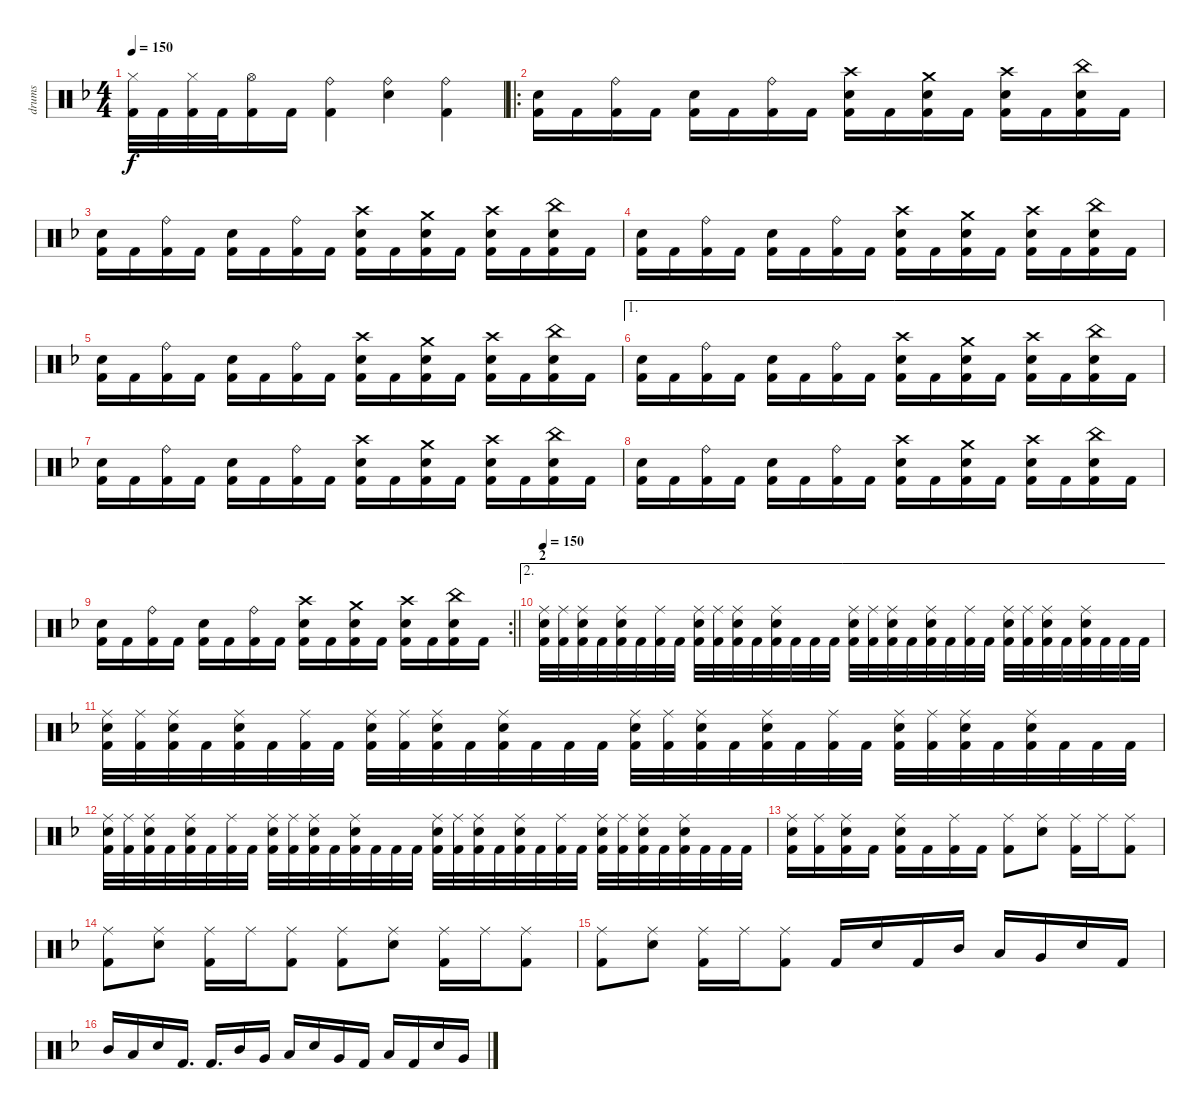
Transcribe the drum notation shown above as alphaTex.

\track ("drums" "drums") {instrument percussion}
\staff {score}
\articulation defaults
\ts (4 4)
\tempo 150
\clef neutral
\ks dminor
("Hi-Hat (closed)" "Kick (hit) 2").32{dy f} "Kick (hit) 2".32 ("Hi-Hat (closed)" "Kick (hit) 2").32 "Kick (hit) 2".32 ("Hi-Hat (open)" "Kick (hit) 2").16 "Kick (hit) 2".16 ("Ride (bell)" "Kick (hit) 2").4 ("Ride (bell)" "Electric Snare (hit)").4 ("Ride (bell)" "Kick (hit) 2").4 |
\ro
("Electric Snare (hit)" "Kick (hit) 2").16 "Kick (hit) 2".16 ("Ride (bell)" "Kick (hit) 2").16 "Kick (hit) 2".16 ("Electric Snare (hit)" "Kick (hit) 2").16 "Kick (hit) 2".16 ("Ride (bell)" "Kick (hit) 2").16 "Kick (hit) 2".16 ("Crash high (hit)" "Electric Snare (hit)" "Kick (hit) 2").16 "Kick (hit) 2".16 ("Crash medium (hit)" "Electric Snare (hit)" "Kick (hit) 2").16 "Kick (hit) 2".16 ("Crash high (hit)" "Electric Snare (hit)" "Kick (hit) 2").16 "Kick (hit) 2".16 ("China (hit)" "Electric Snare (hit)" "Kick (hit) 2").16 "Kick (hit) 2".16 |
("Electric Snare (hit)" "Kick (hit) 2").16 "Kick (hit) 2".16 ("Ride (bell)" "Kick (hit) 2").16 "Kick (hit) 2".16 ("Electric Snare (hit)" "Kick (hit) 2").16 "Kick (hit) 2".16 ("Ride (bell)" "Kick (hit) 2").16 "Kick (hit) 2".16 ("Crash high (hit)" "Electric Snare (hit)" "Kick (hit) 2").16 "Kick (hit) 2".16 ("Crash medium (hit)" "Electric Snare (hit)" "Kick (hit) 2").16 "Kick (hit) 2".16 ("Crash high (hit)" "Electric Snare (hit)" "Kick (hit) 2").16 "Kick (hit) 2".16 ("China (hit)" "Electric Snare (hit)" "Kick (hit) 2").16 "Kick (hit) 2".16 |
("Electric Snare (hit)" "Kick (hit) 2").16 "Kick (hit) 2".16 ("Ride (bell)" "Kick (hit) 2").16 "Kick (hit) 2".16 ("Electric Snare (hit)" "Kick (hit) 2").16 "Kick (hit) 2".16 ("Ride (bell)" "Kick (hit) 2").16 "Kick (hit) 2".16 ("Crash high (hit)" "Electric Snare (hit)" "Kick (hit) 2").16 "Kick (hit) 2".16 ("Crash medium (hit)" "Electric Snare (hit)" "Kick (hit) 2").16 "Kick (hit) 2".16 ("Crash high (hit)" "Electric Snare (hit)" "Kick (hit) 2").16 "Kick (hit) 2".16 ("China (hit)" "Electric Snare (hit)" "Kick (hit) 2").16 "Kick (hit) 2".16 |
("Electric Snare (hit)" "Kick (hit) 2").16 "Kick (hit) 2".16 ("Ride (bell)" "Kick (hit) 2").16 "Kick (hit) 2".16 ("Electric Snare (hit)" "Kick (hit) 2").16 "Kick (hit) 2".16 ("Ride (bell)" "Kick (hit) 2").16 "Kick (hit) 2".16 ("Crash high (hit)" "Electric Snare (hit)" "Kick (hit) 2").16 "Kick (hit) 2".16 ("Crash medium (hit)" "Electric Snare (hit)" "Kick (hit) 2").16 "Kick (hit) 2".16 ("Crash high (hit)" "Electric Snare (hit)" "Kick (hit) 2").16 "Kick (hit) 2".16 ("China (hit)" "Electric Snare (hit)" "Kick (hit) 2").16 "Kick (hit) 2".16 |
\ae 1
("Electric Snare (hit)" "Kick (hit) 2").16 "Kick (hit) 2".16 ("Ride (bell)" "Kick (hit) 2").16 "Kick (hit) 2".16 ("Electric Snare (hit)" "Kick (hit) 2").16 "Kick (hit) 2".16 ("Ride (bell)" "Kick (hit) 2").16 "Kick (hit) 2".16 ("Crash high (hit)" "Electric Snare (hit)" "Kick (hit) 2").16 "Kick (hit) 2".16 ("Crash medium (hit)" "Electric Snare (hit)" "Kick (hit) 2").16 "Kick (hit) 2".16 ("Crash high (hit)" "Electric Snare (hit)" "Kick (hit) 2").16 "Kick (hit) 2".16 ("China (hit)" "Electric Snare (hit)" "Kick (hit) 2").16 "Kick (hit) 2".16 |
("Electric Snare (hit)" "Kick (hit) 2").16 "Kick (hit) 2".16 ("Ride (bell)" "Kick (hit) 2").16 "Kick (hit) 2".16 ("Electric Snare (hit)" "Kick (hit) 2").16 "Kick (hit) 2".16 ("Ride (bell)" "Kick (hit) 2").16 "Kick (hit) 2".16 ("Crash high (hit)" "Electric Snare (hit)" "Kick (hit) 2").16 "Kick (hit) 2".16 ("Crash medium (hit)" "Electric Snare (hit)" "Kick (hit) 2").16 "Kick (hit) 2".16 ("Crash high (hit)" "Electric Snare (hit)" "Kick (hit) 2").16 "Kick (hit) 2".16 ("China (hit)" "Electric Snare (hit)" "Kick (hit) 2").16 "Kick (hit) 2".16 |
("Electric Snare (hit)" "Kick (hit) 2").16 "Kick (hit) 2".16 ("Ride (bell)" "Kick (hit) 2").16 "Kick (hit) 2".16 ("Electric Snare (hit)" "Kick (hit) 2").16 "Kick (hit) 2".16 ("Ride (bell)" "Kick (hit) 2").16 "Kick (hit) 2".16 ("Crash high (hit)" "Electric Snare (hit)" "Kick (hit) 2").16 "Kick (hit) 2".16 ("Crash medium (hit)" "Electric Snare (hit)" "Kick (hit) 2").16 "Kick (hit) 2".16 ("Crash high (hit)" "Electric Snare (hit)" "Kick (hit) 2").16 "Kick (hit) 2".16 ("China (hit)" "Electric Snare (hit)" "Kick (hit) 2").16 "Kick (hit) 2".16 |
\rc 2
\barLineRight lightlight
("Electric Snare (hit)" "Kick (hit) 2").16 "Kick (hit) 2".16 ("Ride (bell)" "Kick (hit) 2").16 "Kick (hit) 2".16 ("Electric Snare (hit)" "Kick (hit) 2").16 "Kick (hit) 2".16 ("Ride (bell)" "Kick (hit) 2").16 "Kick (hit) 2".16 ("Crash high (hit)" "Electric Snare (hit)" "Kick (hit) 2").16 "Kick (hit) 2".16 ("Crash medium (hit)" "Electric Snare (hit)" "Kick (hit) 2").16 "Kick (hit) 2".16 ("Crash high (hit)" "Electric Snare (hit)" "Kick (hit) 2").16 "Kick (hit) 2".16 ("China (hit)" "Electric Snare (hit)" "Kick (hit) 2").16 "Kick (hit) 2".16 |
\ae 2
\section ("" "2")
\tempo 150
("Ride (middle)" "Electric Snare (hit)" "Kick (hit) 2").32 ("Ride (middle)" "Kick (hit) 2").32 ("Ride (middle)" "Electric Snare (hit)" "Kick (hit) 2").32 "Kick (hit) 2".32 ("Ride (middle)" "Electric Snare (hit)" "Kick (hit) 2").32 "Kick (hit) 2".32 ("Ride (middle)" "Kick (hit) 2").32 "Kick (hit) 2".32 ("Ride (middle)" "Electric Snare (hit)" "Kick (hit) 2").32 ("Ride (middle)" "Kick (hit) 2").32 ("Ride (middle)" "Electric Snare (hit)" "Kick (hit) 2").32 "Kick (hit) 2".32 ("Ride (middle)" "Electric Snare (hit)" "Kick (hit) 2").32 "Kick (hit) 2".32 "Kick (hit) 2".32 "Kick (hit) 2".32 ("Ride (middle)" "Electric Snare (hit)" "Kick (hit) 2").32 ("Ride (middle)" "Kick (hit) 2").32 ("Ride (middle)" "Electric Snare (hit)" "Kick (hit) 2").32 "Kick (hit) 2".32 ("Ride (middle)" "Electric Snare (hit)" "Kick (hit) 2").32 "Kick (hit) 2".32 ("Ride (middle)" "Kick (hit) 2").32 "Kick (hit) 2".32 ("Ride (middle)" "Electric Snare (hit)" "Kick (hit) 2").32 ("Ride (middle)" "Kick (hit) 2").32 ("Ride (middle)" "Electric Snare (hit)" "Kick (hit) 2").32 "Kick (hit) 2".32 ("Ride (middle)" "Electric Snare (hit)" "Kick (hit) 2").32 "Kick (hit) 2".32 "Kick (hit) 2".32 "Kick (hit) 2".32 |
("Ride (middle)" "Electric Snare (hit)" "Kick (hit) 2").32 ("Ride (middle)" "Kick (hit) 2").32 ("Ride (middle)" "Electric Snare (hit)" "Kick (hit) 2").32 "Kick (hit) 2".32 ("Ride (middle)" "Electric Snare (hit)" "Kick (hit) 2").32 "Kick (hit) 2".32 ("Ride (middle)" "Kick (hit) 2").32 "Kick (hit) 2".32 ("Ride (middle)" "Electric Snare (hit)" "Kick (hit) 2").32 ("Ride (middle)" "Kick (hit) 2").32 ("Ride (middle)" "Electric Snare (hit)" "Kick (hit) 2").32 "Kick (hit) 2".32 ("Ride (middle)" "Electric Snare (hit)" "Kick (hit) 2").32 "Kick (hit) 2".32 "Kick (hit) 2".32 "Kick (hit) 2".32 ("Ride (middle)" "Electric Snare (hit)" "Kick (hit) 2").32 ("Ride (middle)" "Kick (hit) 2").32 ("Ride (middle)" "Electric Snare (hit)" "Kick (hit) 2").32 "Kick (hit) 2".32 ("Ride (middle)" "Electric Snare (hit)" "Kick (hit) 2").32 "Kick (hit) 2".32 ("Ride (middle)" "Kick (hit) 2").32 "Kick (hit) 2".32 ("Ride (middle)" "Electric Snare (hit)" "Kick (hit) 2").32 ("Ride (middle)" "Kick (hit) 2").32 ("Ride (middle)" "Electric Snare (hit)" "Kick (hit) 2").32 "Kick (hit) 2".32 ("Ride (middle)" "Electric Snare (hit)" "Kick (hit) 2").32 "Kick (hit) 2".32 "Kick (hit) 2".32 "Kick (hit) 2".32 |
("Ride (middle)" "Electric Snare (hit)" "Kick (hit) 2").32 ("Ride (middle)" "Kick (hit) 2").32 ("Ride (middle)" "Electric Snare (hit)" "Kick (hit) 2").32 "Kick (hit) 2".32 ("Ride (middle)" "Electric Snare (hit)" "Kick (hit) 2").32 "Kick (hit) 2".32 ("Ride (middle)" "Kick (hit) 2").32 "Kick (hit) 2".32 ("Ride (middle)" "Electric Snare (hit)" "Kick (hit) 2").32 ("Ride (middle)" "Kick (hit) 2").32 ("Ride (middle)" "Electric Snare (hit)" "Kick (hit) 2").32 "Kick (hit) 2".32 ("Ride (middle)" "Electric Snare (hit)" "Kick (hit) 2").32 "Kick (hit) 2".32 "Kick (hit) 2".32 "Kick (hit) 2".32 ("Ride (middle)" "Electric Snare (hit)" "Kick (hit) 2").32 ("Ride (middle)" "Kick (hit) 2").32 ("Ride (middle)" "Electric Snare (hit)" "Kick (hit) 2").32 "Kick (hit) 2".32 ("Ride (middle)" "Electric Snare (hit)" "Kick (hit) 2").32 "Kick (hit) 2".32 ("Ride (middle)" "Kick (hit) 2").32 "Kick (hit) 2".32 ("Ride (middle)" "Electric Snare (hit)" "Kick (hit) 2").32 ("Ride (middle)" "Kick (hit) 2").32 ("Ride (middle)" "Electric Snare (hit)" "Kick (hit) 2").32 "Kick (hit) 2".32 ("Ride (middle)" "Electric Snare (hit)" "Kick (hit) 2").32 "Kick (hit) 2".32 "Kick (hit) 2".32 "Kick (hit) 2".32 |
("Ride (middle)" "Electric Snare (hit)" "Kick (hit) 2").16 ("Ride (middle)" "Kick (hit) 2").16 ("Ride (middle)" "Electric Snare (hit)" "Kick (hit) 2").16 "Kick (hit) 2".16 ("Ride (middle)" "Electric Snare (hit)" "Kick (hit) 2").16 "Kick (hit) 2".16 ("Ride (middle)" "Kick (hit) 2").16 "Kick (hit) 2".16 ("Ride (middle)" "Kick (hit) 2").8 ("Ride (middle)" "Electric Snare (hit)").8 ("Ride (middle)" "Kick (hit) 2").16 "Ride (middle)".16 ("Ride (middle)" "Kick (hit) 2").8 |
("Ride (middle)" "Kick (hit) 2").8 ("Ride (middle)" "Electric Snare (hit)").8 ("Ride (middle)" "Kick (hit) 2").16 "Ride (middle)".16 ("Ride (middle)" "Kick (hit) 2").8 ("Ride (middle)" "Kick (hit) 2").8 ("Ride (middle)" "Electric Snare (hit)").8 ("Ride (middle)" "Kick (hit) 2").16 "Ride (middle)".16 ("Ride (middle)" "Kick (hit) 2").8 |
("Ride (middle)" "Kick (hit) 2").8 ("Ride (middle)" "Electric Snare (hit)").8 ("Ride (middle)" "Kick (hit) 2").16 "Ride (middle)".16 ("Ride (middle)" "Kick (hit) 2").8 "Kick (hit) 2".16 "Electric Snare (hit)".16 "Kick (hit) 2".16 "Mid Tom (hit)".16 "Low Tom (hit)".16 "Very Low Tom (hit)".16 "Electric Snare (hit)".16 "Kick (hit) 2".16 |
"Mid Tom (hit)".16 "Low Tom (hit)".16 "Electric Snare (hit)".16 "Kick (hit) 2".16{d} "Kick (hit) 2".16{d} "Mid Tom (hit)".16 "Very Low Tom (hit)".16 "Low Tom (hit)".16 "Electric Snare (hit)".16 "Very Low Tom (hit)".16 "Kick (hit) 2".16 "Low Tom (hit)".16 "Kick (hit) 2".16 "Electric Snare (hit)".16 "Very Low Tom (hit)".16
